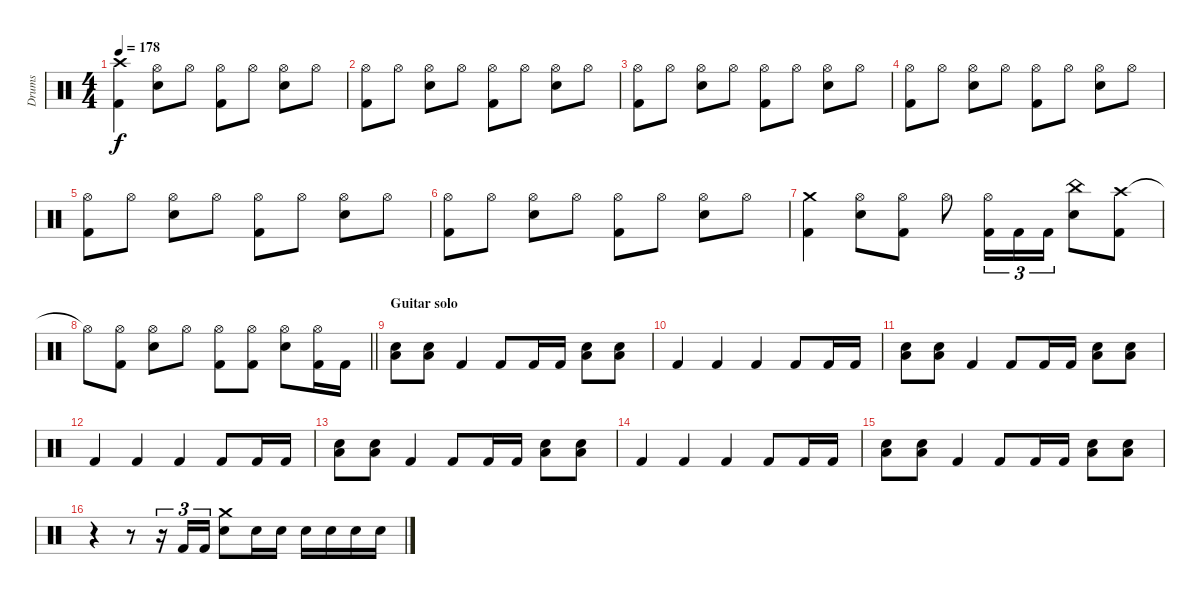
\track ("Drums" "Drums") {instrument percussion}
\staff {score}
\articulation defaults
\ts (4 4)
\tempo 178
\clef neutral
\ks c
("Crash high (hit)" "Kick (hit) 2").4{dy f} ("Hi-Hat (open)" "Electric Snare (hit)").8 "Hi-Hat (open)".8 ("Hi-Hat (open)" "Kick (hit) 2").8 "Hi-Hat (open)".8 ("Hi-Hat (open)" "Electric Snare (hit)").8 "Hi-Hat (open)".8 |
("Hi-Hat (open)" "Kick (hit) 2").8 "Hi-Hat (open)".8 ("Hi-Hat (open)" "Electric Snare (hit)").8 "Hi-Hat (open)".8 ("Hi-Hat (open)" "Kick (hit) 2").8 "Hi-Hat (open)".8 ("Hi-Hat (open)" "Electric Snare (hit)").8 "Hi-Hat (open)".8 |
("Hi-Hat (open)" "Kick (hit) 2").8 "Hi-Hat (open)".8 ("Hi-Hat (open)" "Electric Snare (hit)").8 "Hi-Hat (open)".8 ("Hi-Hat (open)" "Kick (hit) 2").8 "Hi-Hat (open)".8 ("Hi-Hat (open)" "Electric Snare (hit)").8 "Hi-Hat (open)".8 |
("Hi-Hat (open)" "Kick (hit) 2").8 "Hi-Hat (open)".8 ("Hi-Hat (open)" "Electric Snare (hit)").8 "Hi-Hat (open)".8 ("Hi-Hat (open)" "Kick (hit) 2").8 "Hi-Hat (open)".8 ("Hi-Hat (open)" "Electric Snare (hit)").8 "Hi-Hat (open)".8 |
("Hi-Hat (open)" "Kick (hit) 2").8 "Hi-Hat (open)".8 ("Hi-Hat (open)" "Electric Snare (hit)").8 "Hi-Hat (open)".8 ("Hi-Hat (open)" "Kick (hit) 2").8 "Hi-Hat (open)".8 ("Hi-Hat (open)" "Electric Snare (hit)").8 "Hi-Hat (open)".8 |
("Hi-Hat (open)" "Kick (hit) 2").8 "Hi-Hat (open)".8 ("Hi-Hat (open)" "Electric Snare (hit)").8 "Hi-Hat (open)".8 ("Hi-Hat (open)" "Kick (hit) 2").8 "Hi-Hat (open)".8 ("Hi-Hat (open)" "Electric Snare (hit)").8 "Hi-Hat (open)".8 |
("Crash medium (hit)" "Kick (hit) 2").4 ("Hi-Hat (open)" "Electric Snare (hit)").8 ("Hi-Hat (open)" "Kick (hit) 2").8 "Hi-Hat (open)".8 ("Hi-Hat (open)" "Kick (hit) 2").16{tu (3 2)} "Kick (hit) 2".16{tu (3 2)} "Kick (hit) 2".16{tu (3 2)} ("China (hit)" "Electric Snare (hit)").8 ("Crash high (hit)" "Kick (hit) 2").8 |
\barLineRight lightlight "Hi-Hat (open)"{t}.8
("Hi-Hat (open)" "Kick (hit) 2").8 ("Hi-Hat (open)" "Electric Snare (hit)").8 "Hi-Hat (open)".8 ("Hi-Hat (open)" "Kick (hit) 2").8 ("Hi-Hat (open)" "Kick (hit) 2").8 ("Hi-Hat (open)" "Electric Snare (hit)").8 ("Hi-Hat (open)" "Kick (hit) 2").16 "Kick (hit) 2".16 |
\section ("" "Guitar solo")
("Low Floor Tom (hit)" "Electric Snare (hit)").8 ("Low Floor Tom (hit)" "Electric Snare (hit)").8 "Kick (hit) 2".4 "Kick (hit) 2".8 "Kick (hit) 2".16 "Kick (hit) 2".16 ("Low Floor Tom (hit)" "Electric Snare (hit)").8 ("Low Floor Tom (hit)" "Electric Snare (hit)").8 |
"Kick (hit) 2".4 "Kick (hit) 2".4 "Kick (hit) 2".4 "Kick (hit) 2".8 "Kick (hit) 2".16 "Kick (hit) 2".16 |
("Low Floor Tom (hit)" "Electric Snare (hit)").8 ("Low Floor Tom (hit)" "Electric Snare (hit)").8 "Kick (hit) 2".4 "Kick (hit) 2".8 "Kick (hit) 2".16 "Kick (hit) 2".16 ("Low Floor Tom (hit)" "Electric Snare (hit)").8 ("Low Floor Tom (hit)" "Electric Snare (hit)").8 |
"Kick (hit) 2".4 "Kick (hit) 2".4 "Kick (hit) 2".4 "Kick (hit) 2".8 "Kick (hit) 2".16 "Kick (hit) 2".16 |
("Low Floor Tom (hit)" "Electric Snare (hit)").8 ("Low Floor Tom (hit)" "Electric Snare (hit)").8 "Kick (hit) 2".4 "Kick (hit) 2".8 "Kick (hit) 2".16 "Kick (hit) 2".16 ("Low Floor Tom (hit)" "Electric Snare (hit)").8 ("Low Floor Tom (hit)" "Electric Snare (hit)").8 |
"Kick (hit) 2".4 "Kick (hit) 2".4 "Kick (hit) 2".4 "Kick (hit) 2".8 "Kick (hit) 2".16 "Kick (hit) 2".16 |
("Low Floor Tom (hit)" "Electric Snare (hit)").8 ("Low Floor Tom (hit)" "Electric Snare (hit)").8 "Kick (hit) 2".4 "Kick (hit) 2".8 "Kick (hit) 2".16 "Kick (hit) 2".16 ("Low Floor Tom (hit)" "Electric Snare (hit)").8 ("Low Floor Tom (hit)" "Electric Snare (hit)").8 |
r.4 r.8 r.16{tu (3 2)} "Kick (hit) 2".16{tu (3 2)} "Kick (hit) 2".16{tu (3 2)} ("Crash medium (hit)" "Electric Snare (hit)").8 "Electric Snare (hit)".16 "Electric Snare (hit)".16 "Electric Snare (hit)".16 "Electric Snare (hit)".16 "Electric Snare (hit)".16 "Electric Snare (hit)".16
